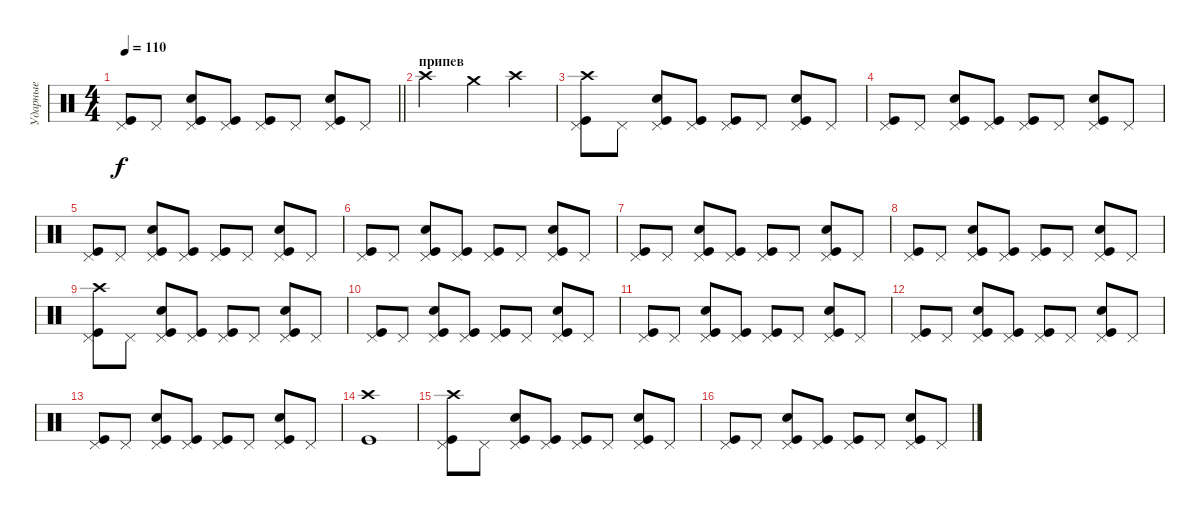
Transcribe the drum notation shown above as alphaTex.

\track ("Ударные" "Ударные") {instrument percussion}
\staff {score}
\articulation defaults
\ts (4 4)
\tempo 110
\clef neutral
\barLineRight lightlight
\ks c
("Pedal Hi-Hat (hit)" "Kick (hit)").8{dy f} "Pedal Hi-Hat (hit)".8 ("Pedal Hi-Hat (hit)" "Kick (hit)" "Snare (hit) 2").8 ("Pedal Hi-Hat (hit)" "Kick (hit)").8 ("Pedal Hi-Hat (hit)" "Kick (hit)").8 "Pedal Hi-Hat (hit)".8 ("Pedal Hi-Hat (hit)" "Kick (hit)" "Snare (hit) 2").8 "Pedal Hi-Hat (hit)".8 |
\section ("" "припев")
"Crash high (hit)".2 "Crash medium (hit)".4 "Crash high (hit)".4 |
("Pedal Hi-Hat (hit)" "Kick (hit)" "Crash high (hit)").8 "Pedal Hi-Hat (hit)".8 ("Pedal Hi-Hat (hit)" "Kick (hit)" "Snare (hit) 2").8 ("Pedal Hi-Hat (hit)" "Kick (hit)").8 ("Pedal Hi-Hat (hit)" "Kick (hit)").8 "Pedal Hi-Hat (hit)".8 ("Pedal Hi-Hat (hit)" "Kick (hit)" "Snare (hit) 2").8 "Pedal Hi-Hat (hit)".8 |
("Pedal Hi-Hat (hit)" "Kick (hit)").8 "Pedal Hi-Hat (hit)".8 ("Pedal Hi-Hat (hit)" "Kick (hit)" "Snare (hit) 2").8 ("Pedal Hi-Hat (hit)" "Kick (hit)").8 ("Pedal Hi-Hat (hit)" "Kick (hit)").8 "Pedal Hi-Hat (hit)".8 ("Pedal Hi-Hat (hit)" "Kick (hit)" "Snare (hit) 2").8 "Pedal Hi-Hat (hit)".8 |
("Pedal Hi-Hat (hit)" "Kick (hit)").8 "Pedal Hi-Hat (hit)".8 ("Pedal Hi-Hat (hit)" "Kick (hit)" "Snare (hit) 2").8 ("Pedal Hi-Hat (hit)" "Kick (hit)").8 ("Pedal Hi-Hat (hit)" "Kick (hit)").8 "Pedal Hi-Hat (hit)".8 ("Pedal Hi-Hat (hit)" "Kick (hit)" "Snare (hit) 2").8 "Pedal Hi-Hat (hit)".8 |
("Pedal Hi-Hat (hit)" "Kick (hit)").8 "Pedal Hi-Hat (hit)".8 ("Pedal Hi-Hat (hit)" "Kick (hit)" "Snare (hit) 2").8 ("Pedal Hi-Hat (hit)" "Kick (hit)").8 ("Pedal Hi-Hat (hit)" "Kick (hit)").8 "Pedal Hi-Hat (hit)".8 ("Pedal Hi-Hat (hit)" "Kick (hit)" "Snare (hit) 2").8 "Pedal Hi-Hat (hit)".8 |
("Pedal Hi-Hat (hit)" "Kick (hit)").8 "Pedal Hi-Hat (hit)".8 ("Pedal Hi-Hat (hit)" "Kick (hit)" "Snare (hit) 2").8 ("Pedal Hi-Hat (hit)" "Kick (hit)").8 ("Pedal Hi-Hat (hit)" "Kick (hit)").8 "Pedal Hi-Hat (hit)".8 ("Pedal Hi-Hat (hit)" "Kick (hit)" "Snare (hit) 2").8 "Pedal Hi-Hat (hit)".8 |
("Pedal Hi-Hat (hit)" "Kick (hit)").8 "Pedal Hi-Hat (hit)".8 ("Pedal Hi-Hat (hit)" "Kick (hit)" "Snare (hit) 2").8 ("Pedal Hi-Hat (hit)" "Kick (hit)").8 ("Pedal Hi-Hat (hit)" "Kick (hit)").8 "Pedal Hi-Hat (hit)".8 ("Pedal Hi-Hat (hit)" "Kick (hit)" "Snare (hit) 2").8 "Pedal Hi-Hat (hit)".8 |
("Pedal Hi-Hat (hit)" "Kick (hit)" "Crash high (hit)").8 "Pedal Hi-Hat (hit)".8 ("Pedal Hi-Hat (hit)" "Kick (hit)" "Snare (hit) 2").8 ("Pedal Hi-Hat (hit)" "Kick (hit)").8 ("Pedal Hi-Hat (hit)" "Kick (hit)").8 "Pedal Hi-Hat (hit)".8 ("Pedal Hi-Hat (hit)" "Kick (hit)" "Snare (hit) 2").8 "Pedal Hi-Hat (hit)".8 |
("Pedal Hi-Hat (hit)" "Kick (hit)").8 "Pedal Hi-Hat (hit)".8 ("Pedal Hi-Hat (hit)" "Kick (hit)" "Snare (hit) 2").8 ("Pedal Hi-Hat (hit)" "Kick (hit)").8 ("Pedal Hi-Hat (hit)" "Kick (hit)").8 "Pedal Hi-Hat (hit)".8 ("Pedal Hi-Hat (hit)" "Kick (hit)" "Snare (hit) 2").8 "Pedal Hi-Hat (hit)".8 |
("Pedal Hi-Hat (hit)" "Kick (hit)").8 "Pedal Hi-Hat (hit)".8 ("Pedal Hi-Hat (hit)" "Kick (hit)" "Snare (hit) 2").8 ("Pedal Hi-Hat (hit)" "Kick (hit)").8 ("Pedal Hi-Hat (hit)" "Kick (hit)").8 "Pedal Hi-Hat (hit)".8 ("Pedal Hi-Hat (hit)" "Kick (hit)" "Snare (hit) 2").8 "Pedal Hi-Hat (hit)".8 |
("Pedal Hi-Hat (hit)" "Kick (hit)").8 "Pedal Hi-Hat (hit)".8 ("Pedal Hi-Hat (hit)" "Kick (hit)" "Snare (hit) 2").8 ("Pedal Hi-Hat (hit)" "Kick (hit)").8 ("Pedal Hi-Hat (hit)" "Kick (hit)").8 "Pedal Hi-Hat (hit)".8 ("Pedal Hi-Hat (hit)" "Kick (hit)" "Snare (hit) 2").8 "Pedal Hi-Hat (hit)".8 |
("Pedal Hi-Hat (hit)" "Kick (hit)").8 "Pedal Hi-Hat (hit)".8 ("Pedal Hi-Hat (hit)" "Kick (hit)" "Snare (hit) 2").8 ("Pedal Hi-Hat (hit)" "Kick (hit)").8 ("Pedal Hi-Hat (hit)" "Kick (hit)").8 "Pedal Hi-Hat (hit)".8 ("Pedal Hi-Hat (hit)" "Kick (hit)" "Snare (hit) 2").8 "Pedal Hi-Hat (hit)".8 |
("Kick (hit)" "Crash high (hit)").1 |
("Pedal Hi-Hat (hit)" "Kick (hit)" "Crash high (hit)").8 "Pedal Hi-Hat (hit)".8 ("Pedal Hi-Hat (hit)" "Kick (hit)" "Snare (hit) 2").8 ("Pedal Hi-Hat (hit)" "Kick (hit)").8 ("Pedal Hi-Hat (hit)" "Kick (hit)").8 "Pedal Hi-Hat (hit)".8 ("Pedal Hi-Hat (hit)" "Kick (hit)" "Snare (hit) 2").8 "Pedal Hi-Hat (hit)".8 |
("Pedal Hi-Hat (hit)" "Kick (hit)").8 "Pedal Hi-Hat (hit)".8 ("Pedal Hi-Hat (hit)" "Kick (hit)" "Snare (hit) 2").8 ("Pedal Hi-Hat (hit)" "Kick (hit)").8 ("Pedal Hi-Hat (hit)" "Kick (hit)").8 "Pedal Hi-Hat (hit)".8 ("Pedal Hi-Hat (hit)" "Kick (hit)" "Snare (hit) 2").8 "Pedal Hi-Hat (hit)".8
